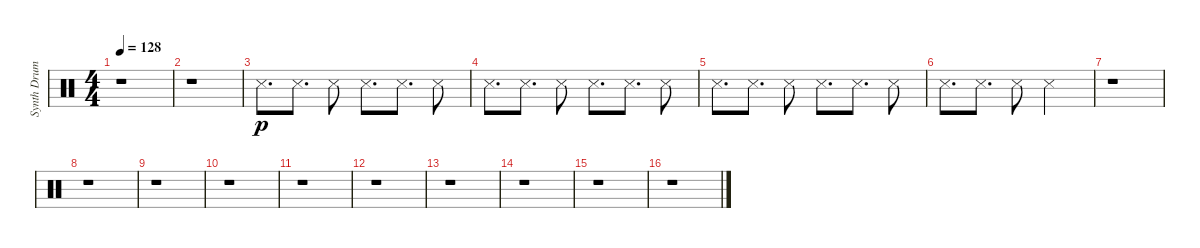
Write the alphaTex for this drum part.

\track ("Synth Drums" "Synth Drum") {instrument percussion}
\staff {score}
\articulation defaults
\ts (4 4)
\tempo 128
\clef neutral
\ks c
r.1{dy p} |
r.1 |
"Snare (side stick) 3".8{d} "Snare (side stick) 3".8{d} "Snare (side stick) 3".8 "Snare (side stick) 3".8{d} "Snare (side stick) 3".8{d} "Snare (side stick) 3".8 |
"Snare (side stick) 3".8{d} "Snare (side stick) 3".8{d} "Snare (side stick) 3".8 "Snare (side stick) 3".8{d} "Snare (side stick) 3".8{d} "Snare (side stick) 3".8 |
"Snare (side stick) 3".8{d} "Snare (side stick) 3".8{d} "Snare (side stick) 3".8 "Snare (side stick) 3".8{d} "Snare (side stick) 3".8{d} "Snare (side stick) 3".8 |
"Snare (side stick) 3".8{d} "Snare (side stick) 3".8{d} "Snare (side stick) 3".8 "Snare (side stick) 3".2 |
r.1 |
r.1 |
r.1 |
r.1 |
r.1 |
r.1 |
r.1 |
r.1 |
r.1 |
r.1
